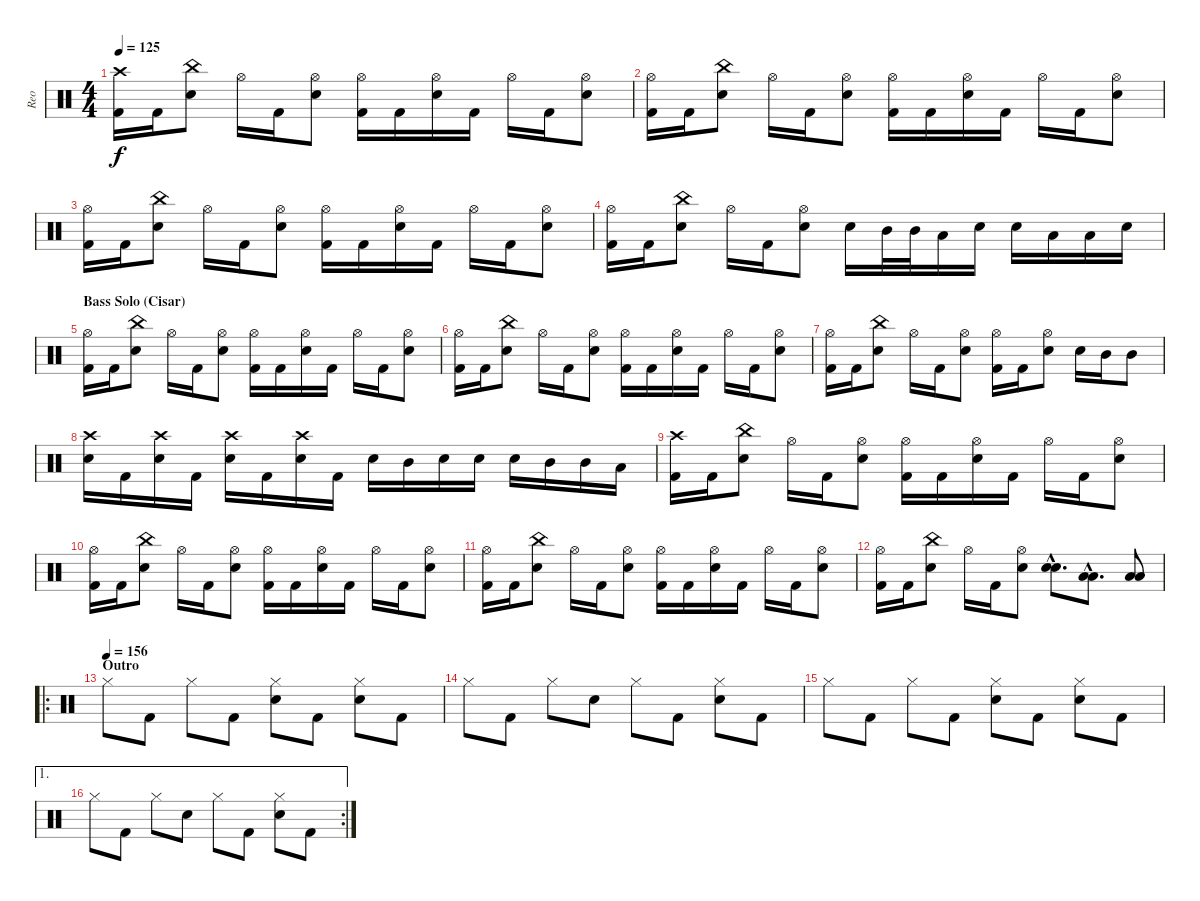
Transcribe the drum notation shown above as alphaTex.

\track ("Reo" "Reo") {instrument percussion}
\staff {score}
\articulation defaults
\ts (4 4)
\tempo 125
\clef neutral
\ks c
("Crash high (hit)" "Kick (hit) 2").16{dy f} "Kick (hit) 2".16 ("China (hit)" "Electric Snare (hit)").8 "Hi-Hat (open)".16 "Kick (hit) 2".16 ("Hi-Hat (open)" "Electric Snare (hit)").8 ("Hi-Hat (open)" "Kick (hit) 2").16 "Kick (hit) 2".16 ("Hi-Hat (open)" "Electric Snare (hit)").16 "Kick (hit) 2".16 "Hi-Hat (open)".16 "Kick (hit) 2".16 ("Hi-Hat (open)" "Electric Snare (hit)").8 |
("Hi-Hat (open)" "Kick (hit) 2").16 "Kick (hit) 2".16 ("China (hit)" "Electric Snare (hit)").8 "Hi-Hat (open)".16 "Kick (hit) 2".16 ("Hi-Hat (open)" "Electric Snare (hit)").8 ("Hi-Hat (open)" "Kick (hit) 2").16 "Kick (hit) 2".16 ("Hi-Hat (open)" "Electric Snare (hit)").16 "Kick (hit) 2".16 "Hi-Hat (open)".16 "Kick (hit) 2".16 ("Hi-Hat (open)" "Electric Snare (hit)").8 |
("Hi-Hat (open)" "Kick (hit) 2").16 "Kick (hit) 2".16 ("China (hit)" "Electric Snare (hit)").8 "Hi-Hat (open)".16 "Kick (hit) 2".16 ("Hi-Hat (open)" "Electric Snare (hit)").8 ("Hi-Hat (open)" "Kick (hit) 2").16 "Kick (hit) 2".16 ("Hi-Hat (open)" "Electric Snare (hit)").16 "Kick (hit) 2".16 "Hi-Hat (open)".16 "Kick (hit) 2".16 ("Hi-Hat (open)" "Electric Snare (hit)").8 |
("Hi-Hat (open)" "Kick (hit) 2").16 "Kick (hit) 2".16 ("China (hit)" "Electric Snare (hit)").8 "Hi-Hat (open)".16 "Kick (hit) 2".16 ("Hi-Hat (open)" "Electric Snare (hit)").8 "Electric Snare (hit)".16 "Mid Tom (hit)".32 "Mid Tom (hit)".32 "Low Tom (hit)".16 "Electric Snare (hit)".16 "Electric Snare (hit)".16 "Low Tom (hit)".16 "Low Tom (hit)".16 "Electric Snare (hit)".16 |
\section ("" "Bass Solo (Cisar)")
("Hi-Hat (open)" "Kick (hit) 2").16 "Kick (hit) 2".16 ("China (hit)" "Electric Snare (hit)").8 "Hi-Hat (open)".16 "Kick (hit) 2".16 ("Hi-Hat (open)" "Electric Snare (hit)").8 ("Hi-Hat (open)" "Kick (hit) 2").16 "Kick (hit) 2".16 ("Hi-Hat (open)" "Electric Snare (hit)").16 "Kick (hit) 2".16 "Hi-Hat (open)".16 "Kick (hit) 2".16 ("Hi-Hat (open)" "Electric Snare (hit)").8 |
("Hi-Hat (open)" "Kick (hit) 2").16 "Kick (hit) 2".16 ("China (hit)" "Electric Snare (hit)").8 "Hi-Hat (open)".16 "Kick (hit) 2".16 ("Hi-Hat (open)" "Electric Snare (hit)").8 ("Hi-Hat (open)" "Kick (hit) 2").16 "Kick (hit) 2".16 ("Hi-Hat (open)" "Electric Snare (hit)").16 "Kick (hit) 2".16 "Hi-Hat (open)".16 "Kick (hit) 2".16 ("Hi-Hat (open)" "Electric Snare (hit)").8 |
("Hi-Hat (open)" "Kick (hit) 2").16 "Kick (hit) 2".16 ("China (hit)" "Electric Snare (hit)").8 "Hi-Hat (open)".16 "Kick (hit) 2".16 ("Hi-Hat (open)" "Electric Snare (hit)").8 ("Hi-Hat (open)" "Kick (hit) 2").16 "Kick (hit) 2".16 ("Hi-Hat (open)" "Electric Snare (hit)").8 "Electric Snare (hit)".16 "Mid Tom (hit)".16 "Mid Tom (hit)".8 |
("Crash high (hit)" "Electric Snare (hit)").16 "Kick (hit) 2".16 ("Crash high (hit)" "Electric Snare (hit)").16 "Kick (hit) 2".16 ("Crash high (hit)" "Electric Snare (hit)").16 "Kick (hit) 2".16 ("Crash high (hit)" "Electric Snare (hit)").16 "Kick (hit) 2".16 "Electric Snare (hit)".16 "Mid Tom (hit)".16 "Electric Snare (hit)".16 "Electric Snare (hit)".16 "Electric Snare (hit)".16 "Mid Tom (hit)".16 "Mid Tom (hit)".16 "Low Tom (hit)".16 |
("Crash high (hit)" "Kick (hit) 2").16 "Kick (hit) 2".16 ("China (hit)" "Electric Snare (hit)").8 "Hi-Hat (open)".16 "Kick (hit) 2".16 ("Hi-Hat (open)" "Electric Snare (hit)").8 ("Hi-Hat (open)" "Kick (hit) 2").16 "Kick (hit) 2".16 ("Hi-Hat (open)" "Electric Snare (hit)").16 "Kick (hit) 2".16 "Hi-Hat (open)".16 "Kick (hit) 2".16 ("Hi-Hat (open)" "Electric Snare (hit)").8 |
("Hi-Hat (open)" "Kick (hit) 2").16 "Kick (hit) 2".16 ("China (hit)" "Electric Snare (hit)").8 "Hi-Hat (open)".16 "Kick (hit) 2".16 ("Hi-Hat (open)" "Electric Snare (hit)").8 ("Hi-Hat (open)" "Kick (hit) 2").16 "Kick (hit) 2".16 ("Hi-Hat (open)" "Electric Snare (hit)").16 "Kick (hit) 2".16 "Hi-Hat (open)".16 "Kick (hit) 2".16 ("Hi-Hat (open)" "Electric Snare (hit)").8 |
("Hi-Hat (open)" "Kick (hit) 2").16 "Kick (hit) 2".16 ("China (hit)" "Electric Snare (hit)").8 "Hi-Hat (open)".16 "Kick (hit) 2".16 ("Hi-Hat (open)" "Electric Snare (hit)").8 ("Hi-Hat (open)" "Kick (hit) 2").16 "Kick (hit) 2".16 ("Hi-Hat (open)" "Electric Snare (hit)").16 "Kick (hit) 2".16 "Hi-Hat (open)".16 "Kick (hit) 2".16 ("Hi-Hat (open)" "Electric Snare (hit)").8 |
("Hi-Hat (open)" "Kick (hit) 2").16 "Kick (hit) 2".16 ("China (hit)" "Electric Snare (hit)").8 "Hi-Hat (open)".16 "Kick (hit) 2".16 ("Hi-Hat (open)" "Electric Snare (hit)").8 ("Snare (hit) 2"{hac} "Snare (hit) 2"{hac}).8{d} ("Low Tom (hit)"{hac} "Low Tom (hit)"{hac}).8{d} ("Low Floor Tom (hit)" "Low Floor Tom (hit)").8 |
\ro
\section ("" "Outro")
\tempo (156)
"Hi-Hat (closed)".8{balance 16} "Kick (hit) 2".8 "Hi-Hat (closed)".8 "Kick (hit) 2".8 ("Hi-Hat (closed)" "Snare (hit) 2").8 "Kick (hit) 2".8 ("Hi-Hat (closed)" "Snare (hit) 2").8 "Kick (hit) 2".8 |
"Hi-Hat (closed)".8 "Kick (hit) 2".8 "Hi-Hat (closed)".8 "Snare (hit) 2".8 "Hi-Hat (closed)".8 "Kick (hit) 2".8 ("Hi-Hat (closed)" "Snare (hit) 2").8 "Kick (hit) 2".8 |
"Hi-Hat (closed)".8 "Kick (hit) 2".8 "Hi-Hat (closed)".8 "Kick (hit) 2".8 ("Hi-Hat (closed)" "Snare (hit) 2").8 "Kick (hit) 2".8 ("Hi-Hat (closed)" "Snare (hit) 2").8 "Kick (hit) 2".8 |
\ae 1
\rc 2 "Hi-Hat (closed)".8 "Kick (hit) 2".8 "Hi-Hat (closed)".8 "Snare (hit) 2".8 "Hi-Hat (closed)".8 "Kick (hit) 2".8
("Hi-Hat (closed)" "Snare (hit) 2").8 "Kick (hit) 2".8
